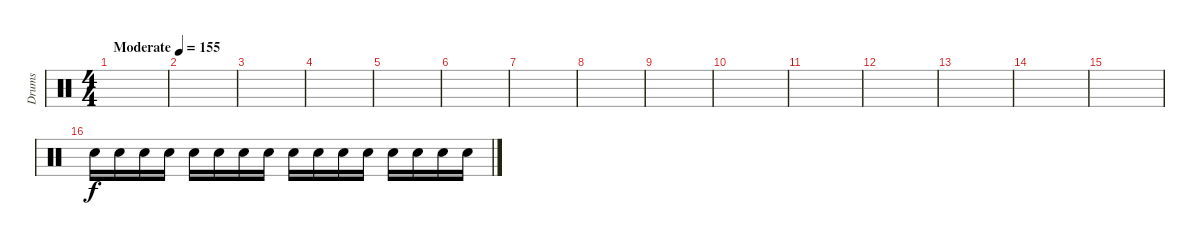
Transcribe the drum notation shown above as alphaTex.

\track ("Drums" "Drums") {instrument percussion}
\staff {score}
\articulation defaults
\ts (4 4)
\tempo (155 "Moderate")
\clef neutral
\ks c
|
|
|
|
|
|
|
|
|
|
|
|
|
|
|
"Snare (hit) 2".16 "Snare (hit) 2".16 "Snare (hit) 2".16 "Snare (hit) 2".16 "Snare (hit) 2".16 "Snare (hit) 2".16 "Snare (hit) 2".16 "Snare (hit) 2".16 "Snare (hit) 2".16 "Snare (hit) 2".16 "Snare (hit) 2".16 "Snare (hit) 2".16 "Snare (hit) 2".16 "Snare (hit) 2".16 "Snare (hit) 2".16 "Snare (hit) 2".16
